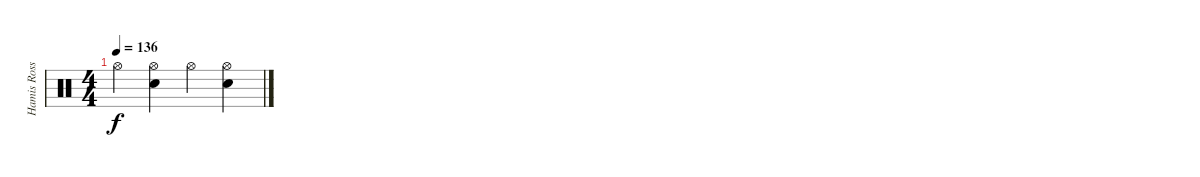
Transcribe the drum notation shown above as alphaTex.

\track ("Hamis Rosser" "Hamis Ross") {instrument percussion}
\staff {score}
\articulation defaults
\ts (4 4)
\tempo 136
\clef neutral
\ks c "Hi-Hat (open)".4{dy f}
("Hi-Hat (open)" "Electric Snare (hit)").4 "Hi-Hat (open)".4 ("Hi-Hat (open)" "Electric Snare (hit)").4
